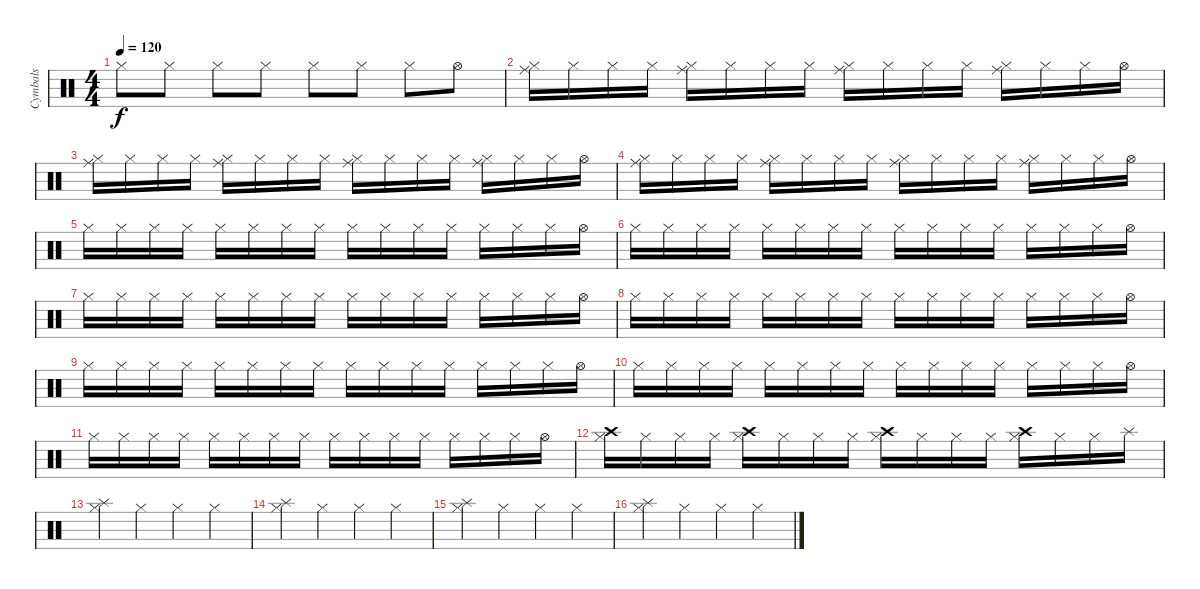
\track ("Cymbals" "Cymbals") {instrument percussion}
\staff {score}
\articulation defaults
\ts (4 4)
\tempo 120
\clef neutral
\ks c "Hi-Hat (closed)".8{dy f} "Hi-Hat (closed)".8 "Hi-Hat (closed)".8 "Hi-Hat (closed)".8 "Hi-Hat (closed)".8 "Hi-Hat (closed)".8 "Hi-Hat (closed)".8 "Hi-Hat (open)".8
|
("Ride (middle)" "Hi-Hat (closed)").16 "Hi-Hat (closed)".16 "Hi-Hat (closed)".16 "Hi-Hat (closed)".16 ("Ride (middle)" "Hi-Hat (closed)").16 "Hi-Hat (closed)".16 "Hi-Hat (closed)".16 "Hi-Hat (closed)".16 ("Ride (middle)" "Hi-Hat (closed)").16 "Hi-Hat (closed)".16 "Hi-Hat (closed)".16 "Hi-Hat (closed)".16 ("Ride (middle)" "Hi-Hat (closed)").16 "Hi-Hat (closed)".16 "Hi-Hat (closed)".16 "Hi-Hat (open)".16 |
("Ride (middle)" "Hi-Hat (closed)").16 "Hi-Hat (closed)".16 "Hi-Hat (closed)".16 "Hi-Hat (closed)".16 ("Ride (middle)" "Hi-Hat (closed)").16 "Hi-Hat (closed)".16 "Hi-Hat (closed)".16 "Hi-Hat (closed)".16 ("Ride (middle)" "Hi-Hat (closed)").16 "Hi-Hat (closed)".16 "Hi-Hat (closed)".16 "Hi-Hat (closed)".16 ("Ride (middle)" "Hi-Hat (closed)").16 "Hi-Hat (closed)".16 "Hi-Hat (closed)".16 "Hi-Hat (open)".16 |
("Ride (middle)" "Hi-Hat (closed)").16 "Hi-Hat (closed)".16 "Hi-Hat (closed)".16 "Hi-Hat (closed)".16 ("Ride (middle)" "Hi-Hat (closed)").16 "Hi-Hat (closed)".16 "Hi-Hat (closed)".16 "Hi-Hat (closed)".16 ("Ride (middle)" "Hi-Hat (closed)").16 "Hi-Hat (closed)".16 "Hi-Hat (closed)".16 "Hi-Hat (closed)".16 ("Ride (middle)" "Hi-Hat (closed)").16 "Hi-Hat (closed)".16 "Hi-Hat (closed)".16 "Hi-Hat (open)".16 |
"Hi-Hat (closed)".16 "Hi-Hat (closed)".16 "Hi-Hat (closed)".16 "Hi-Hat (closed)".16 "Hi-Hat (closed)".16 "Hi-Hat (closed)".16 "Hi-Hat (closed)".16 "Hi-Hat (closed)".16 "Hi-Hat (closed)".16 "Hi-Hat (closed)".16 "Hi-Hat (closed)".16 "Hi-Hat (closed)".16 "Hi-Hat (closed)".16 "Hi-Hat (closed)".16 "Hi-Hat (closed)".16 "Hi-Hat (open)".16 |
"Hi-Hat (closed)".16 "Hi-Hat (closed)".16 "Hi-Hat (closed)".16 "Hi-Hat (closed)".16 "Hi-Hat (closed)".16 "Hi-Hat (closed)".16 "Hi-Hat (closed)".16 "Hi-Hat (closed)".16 "Hi-Hat (closed)".16 "Hi-Hat (closed)".16 "Hi-Hat (closed)".16 "Hi-Hat (closed)".16 "Hi-Hat (closed)".16 "Hi-Hat (closed)".16 "Hi-Hat (closed)".16 "Hi-Hat (open)".16 |
"Hi-Hat (closed)".16 "Hi-Hat (closed)".16 "Hi-Hat (closed)".16 "Hi-Hat (closed)".16 "Hi-Hat (closed)".16 "Hi-Hat (closed)".16 "Hi-Hat (closed)".16 "Hi-Hat (closed)".16 "Hi-Hat (closed)".16 "Hi-Hat (closed)".16 "Hi-Hat (closed)".16 "Hi-Hat (closed)".16 "Hi-Hat (closed)".16 "Hi-Hat (closed)".16 "Hi-Hat (closed)".16 "Hi-Hat (open)".16 |
"Hi-Hat (closed)".16 "Hi-Hat (closed)".16 "Hi-Hat (closed)".16 "Hi-Hat (closed)".16 "Hi-Hat (closed)".16 "Hi-Hat (closed)".16 "Hi-Hat (closed)".16 "Hi-Hat (closed)".16 "Hi-Hat (closed)".16 "Hi-Hat (closed)".16 "Hi-Hat (closed)".16 "Hi-Hat (closed)".16 "Hi-Hat (closed)".16 "Hi-Hat (closed)".16 "Hi-Hat (closed)".16 "Hi-Hat (open)".16 |
"Hi-Hat (closed)".16 "Hi-Hat (closed)".16 "Hi-Hat (closed)".16 "Hi-Hat (closed)".16 "Hi-Hat (closed)".16 "Hi-Hat (closed)".16 "Hi-Hat (closed)".16 "Hi-Hat (closed)".16 "Hi-Hat (closed)".16 "Hi-Hat (closed)".16 "Hi-Hat (closed)".16 "Hi-Hat (closed)".16 "Hi-Hat (closed)".16 "Hi-Hat (closed)".16 "Hi-Hat (closed)".16 "Hi-Hat (open)".16 |
"Hi-Hat (closed)".16 "Hi-Hat (closed)".16 "Hi-Hat (closed)".16 "Hi-Hat (closed)".16 "Hi-Hat (closed)".16 "Hi-Hat (closed)".16 "Hi-Hat (closed)".16 "Hi-Hat (closed)".16 "Hi-Hat (closed)".16 "Hi-Hat (closed)".16 "Hi-Hat (closed)".16 "Hi-Hat (closed)".16 "Hi-Hat (closed)".16 "Hi-Hat (closed)".16 "Hi-Hat (closed)".16 "Hi-Hat (open)".16 |
"Hi-Hat (closed)".16 "Hi-Hat (closed)".16 "Hi-Hat (closed)".16 "Hi-Hat (closed)".16 "Hi-Hat (closed)".16 "Hi-Hat (closed)".16 "Hi-Hat (closed)".16 "Hi-Hat (closed)".16 "Hi-Hat (closed)".16 "Hi-Hat (closed)".16 "Hi-Hat (closed)".16 "Hi-Hat (closed)".16 "Hi-Hat (closed)".16 "Hi-Hat (closed)".16 "Hi-Hat (closed)".16 "Hi-Hat (open)".16 |
("Crash high (hit)" "Hi-Hat (closed)").16 "Hi-Hat (closed)".16 "Hi-Hat (closed)".16 "Hi-Hat (closed)".16 ("Crash high (hit)" "Hi-Hat (closed)").16 "Hi-Hat (closed)".16 "Hi-Hat (closed)".16 "Hi-Hat (closed)".16 ("Crash high (hit)" "Hi-Hat (closed)").16 "Hi-Hat (closed)".16 "Hi-Hat (closed)".16 "Hi-Hat (closed)".16 ("Crash high (hit)" "Hi-Hat (closed)").16 "Hi-Hat (closed)".16 "Hi-Hat (closed)".16 "Splash (hit)".16 |
("Splash (hit)" "Hi-Hat (closed)").4 "Hi-Hat (closed)".4 "Hi-Hat (closed)".4 "Hi-Hat (closed)".4 |
("Splash (hit)" "Hi-Hat (closed)").4 "Hi-Hat (closed)".4 "Hi-Hat (closed)".4 "Hi-Hat (closed)".4 |
("Splash (hit)" "Hi-Hat (closed)").4 "Hi-Hat (closed)".4 "Hi-Hat (closed)".4 "Hi-Hat (closed)".4 |
("Splash (hit)" "Hi-Hat (closed)").4 "Hi-Hat (closed)".4 "Hi-Hat (closed)".4 "Hi-Hat (closed)".4
